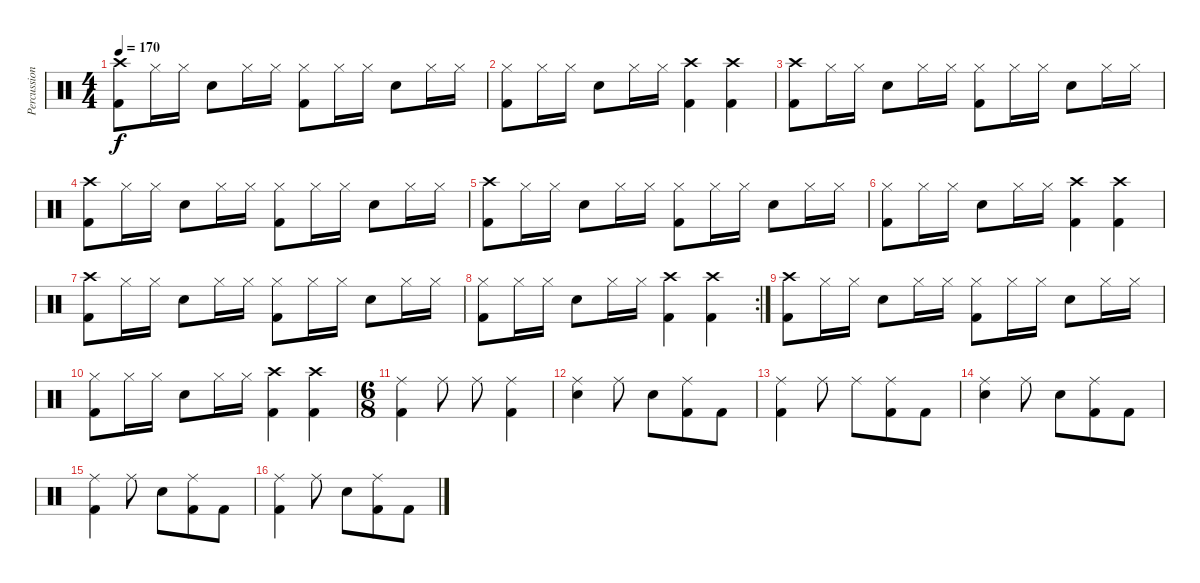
\track ("Percussion" "Percussion") {instrument percussion}
\staff {score}
\articulation defaults
\ts (4 4)
\tempo 170
\clef neutral
\ks c
("Crash high (hit)" "Kick (hit) 2").8{dy f} "Hi-Hat (closed)".16 "Hi-Hat (closed)".16 "Snare (hit) 2".8 "Hi-Hat (closed)".16 "Hi-Hat (closed)".16 ("Hi-Hat (closed)" "Kick (hit) 2").8 "Hi-Hat (closed)".16 "Hi-Hat (closed)".16 "Snare (hit) 2".8 "Hi-Hat (closed)".16 "Hi-Hat (closed)".16 |
("Hi-Hat (closed)" "Kick (hit) 2").8 "Hi-Hat (closed)".16 "Hi-Hat (closed)".16 "Snare (hit) 2".8 "Hi-Hat (closed)".16 "Hi-Hat (closed)".16 ("Crash high (hit)" "Kick (hit) 2").4 ("Crash high (hit)" "Kick (hit) 2").4 |
("Crash high (hit)" "Kick (hit) 2").8 "Hi-Hat (closed)".16 "Hi-Hat (closed)".16 "Snare (hit) 2".8 "Hi-Hat (closed)".16 "Hi-Hat (closed)".16 ("Hi-Hat (closed)" "Kick (hit) 2").8 "Hi-Hat (closed)".16 "Hi-Hat (closed)".16 "Snare (hit) 2".8 "Hi-Hat (closed)".16 "Hi-Hat (closed)".16 |
("Crash high (hit)" "Kick (hit) 2").8 "Hi-Hat (closed)".16 "Hi-Hat (closed)".16 "Snare (hit) 2".8 "Hi-Hat (closed)".16 "Hi-Hat (closed)".16 ("Hi-Hat (closed)" "Kick (hit) 2").8 "Hi-Hat (closed)".16 "Hi-Hat (closed)".16 "Snare (hit) 2".8 "Hi-Hat (closed)".16 "Hi-Hat (closed)".16 |
("Crash high (hit)" "Kick (hit) 2").8 "Hi-Hat (closed)".16 "Hi-Hat (closed)".16 "Snare (hit) 2".8 "Hi-Hat (closed)".16 "Hi-Hat (closed)".16 ("Hi-Hat (closed)" "Kick (hit) 2").8 "Hi-Hat (closed)".16 "Hi-Hat (closed)".16 "Snare (hit) 2".8 "Hi-Hat (closed)".16 "Hi-Hat (closed)".16 |
("Hi-Hat (closed)" "Kick (hit) 2").8 "Hi-Hat (closed)".16 "Hi-Hat (closed)".16 "Snare (hit) 2".8 "Hi-Hat (closed)".16 "Hi-Hat (closed)".16 ("Crash high (hit)" "Kick (hit) 2").4 ("Crash high (hit)" "Kick (hit) 2").4 |
("Crash high (hit)" "Kick (hit) 2").8 "Hi-Hat (closed)".16 "Hi-Hat (closed)".16 "Snare (hit) 2".8 "Hi-Hat (closed)".16 "Hi-Hat (closed)".16 ("Hi-Hat (closed)" "Kick (hit) 2").8 "Hi-Hat (closed)".16 "Hi-Hat (closed)".16 "Snare (hit) 2".8 "Hi-Hat (closed)".16 "Hi-Hat (closed)".16 |
\rc 2
("Hi-Hat (closed)" "Kick (hit) 2").8 "Hi-Hat (closed)".16 "Hi-Hat (closed)".16 "Snare (hit) 2".8 "Hi-Hat (closed)".16 "Hi-Hat (closed)".16 ("Crash high (hit)" "Kick (hit) 2").4 ("Crash high (hit)" "Kick (hit) 2").4 |
("Crash high (hit)" "Kick (hit) 2").8 "Hi-Hat (closed)".16 "Hi-Hat (closed)".16 "Snare (hit) 2".8 "Hi-Hat (closed)".16 "Hi-Hat (closed)".16 ("Hi-Hat (closed)" "Kick (hit) 2").8 "Hi-Hat (closed)".16 "Hi-Hat (closed)".16 "Snare (hit) 2".8 "Hi-Hat (closed)".16 "Hi-Hat (closed)".16 |
("Hi-Hat (closed)" "Kick (hit) 2").8 "Hi-Hat (closed)".16 "Hi-Hat (closed)".16 "Snare (hit) 2".8 "Hi-Hat (closed)".16 "Hi-Hat (closed)".16 ("Crash high (hit)" "Kick (hit) 2").4 ("Crash high (hit)" "Kick (hit) 2").4 |
\ts (6 8)
("Ride (middle)" "Kick (hit) 2").4 "Ride (middle)".8 "Ride (middle)".8 ("Ride (middle)" "Kick (hit) 2").4 |
("Ride (middle)" "Snare (hit) 2").4 "Ride (middle)".8 "Snare (hit) 2".8 ("Ride (middle)" "Kick (hit) 2").8 "Kick (hit) 2".8 |
("Ride (middle)" "Kick (hit) 2").4 "Ride (middle)".8 "Ride (middle)".8 ("Ride (middle)" "Kick (hit) 2").8 "Kick (hit) 2".8 |
("Ride (middle)" "Snare (hit) 2").4 "Ride (middle)".8 "Snare (hit) 2".8 ("Ride (middle)" "Kick (hit) 2").8 "Kick (hit) 2".8 |
("Ride (middle)" "Kick (hit) 2").4 "Ride (middle)".8 "Snare (hit) 2".8 ("Ride (middle)" "Kick (hit) 2").8 "Kick (hit) 2".8 |
("Ride (middle)" "Kick (hit) 2").4 "Ride (middle)".8 "Snare (hit) 2".8 ("Ride (middle)" "Kick (hit) 2").8 "Kick (hit) 2".8
